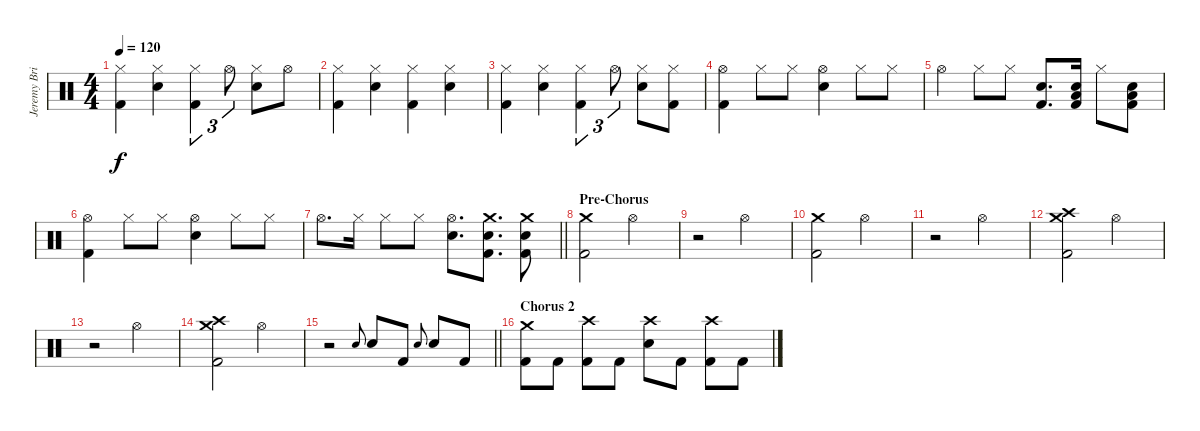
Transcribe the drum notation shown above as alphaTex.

\track ("Jeremy Brian [Drums]" "Jeremy Bri") {instrument percussion}
\staff {score}
\articulation defaults
\ts (4 4)
\tempo 120
\clef neutral
\ks c
("Hi-Hat (closed)" "Kick (hit) 2").4{dy f} ("Hi-Hat (closed)" "Electric Snare (hit)").4 ("Hi-Hat (closed)" "Kick (hit) 2").4{tu (3 2)} "Hi-Hat (open)".8{tu (3 2)} ("Hi-Hat (closed)" "Electric Snare (hit)").8 "Hi-Hat (open)".8 |
("Hi-Hat (closed)" "Kick (hit) 2").4 ("Hi-Hat (closed)" "Electric Snare (hit)").4 ("Hi-Hat (closed)" "Kick (hit) 2").4 ("Hi-Hat (closed)" "Electric Snare (hit)").4 |
("Hi-Hat (closed)" "Kick (hit) 2").4 ("Hi-Hat (closed)" "Electric Snare (hit)").4 ("Hi-Hat (closed)" "Kick (hit) 2").4{tu (3 2)} "Hi-Hat (open)".8{tu (3 2)} ("Hi-Hat (closed)" "Electric Snare (hit)").8 ("Hi-Hat (closed)" "Kick (hit) 2").8 |
("Hi-Hat (open)" "Kick (hit) 2").4 "Hi-Hat (closed)".8 "Hi-Hat (closed)".8 ("Hi-Hat (open)" "Electric Snare (hit)").4 "Hi-Hat (closed)".8 "Hi-Hat (closed)".8 |
"Hi-Hat (open)".4 "Hi-Hat (closed)".8 "Hi-Hat (closed)".8 ("Electric Snare (hit)" "Kick (hit) 2").8{d} ("Low Floor Tom (hit)" "Electric Snare (hit)" "Kick (hit) 2").16 "Hi-Hat (closed)".8 ("Low Floor Tom (hit)" "Electric Snare (hit)" "Kick (hit) 2").8 |
("Hi-Hat (open)" "Kick (hit) 2").4 "Hi-Hat (closed)".8 "Hi-Hat (closed)".8 ("Hi-Hat (open)" "Electric Snare (hit)").4 "Hi-Hat (closed)".8 "Hi-Hat (closed)".8 |
\barLineRight lightlight "Hi-Hat (open)".8{d} "Hi-Hat (closed)".16 "Hi-Hat (closed)".8 "Hi-Hat (closed)".8
("Hi-Hat (open)" "Electric Snare (hit)").8{d} ("Crash medium (hit)" "Electric Snare (hit)" "Kick (hit) 2").8{d} ("Crash medium (hit)" "Electric Snare (hit)" "Kick (hit) 2").8 |
\section ("" "Pre-Chorus")
("Crash medium (hit)" "Kick (hit) 2").2 "Hi-Hat (open)".2 |
r.2 "Hi-Hat (open)".2 |
("Crash medium (hit)" "Kick (hit) 2").2 "Hi-Hat (open)".2 |
r.2 "Hi-Hat (open)".2 |
("Crash high (hit)" "Crash medium (hit)" "Kick (hit) 2").2 "Hi-Hat (open)".2 |
r.2 "Hi-Hat (open)".2 |
("Crash high (hit)" "Crash medium (hit)" "Kick (hit) 2").2 "Hi-Hat (open)".2 |
\barLineRight lightlight
r.2 "Electric Snare (hit)".8{gr onbeat} "Electric Snare (hit)".8 "Kick (hit) 2".8 "Electric Snare (hit)".8{gr onbeat} "Electric Snare (hit)".8 "Kick (hit) 2".8 |
\section ("" "Chorus 2")
("Crash medium (hit)" "Kick (hit) 2").8 "Kick (hit) 2".8 ("Crash high (hit)" "Kick (hit) 2").8 "Kick (hit) 2".8 ("Crash high (hit)" "Electric Snare (hit)").8 "Kick (hit) 2".8 ("Crash high (hit)" "Kick (hit) 2").8 "Kick (hit) 2".8
